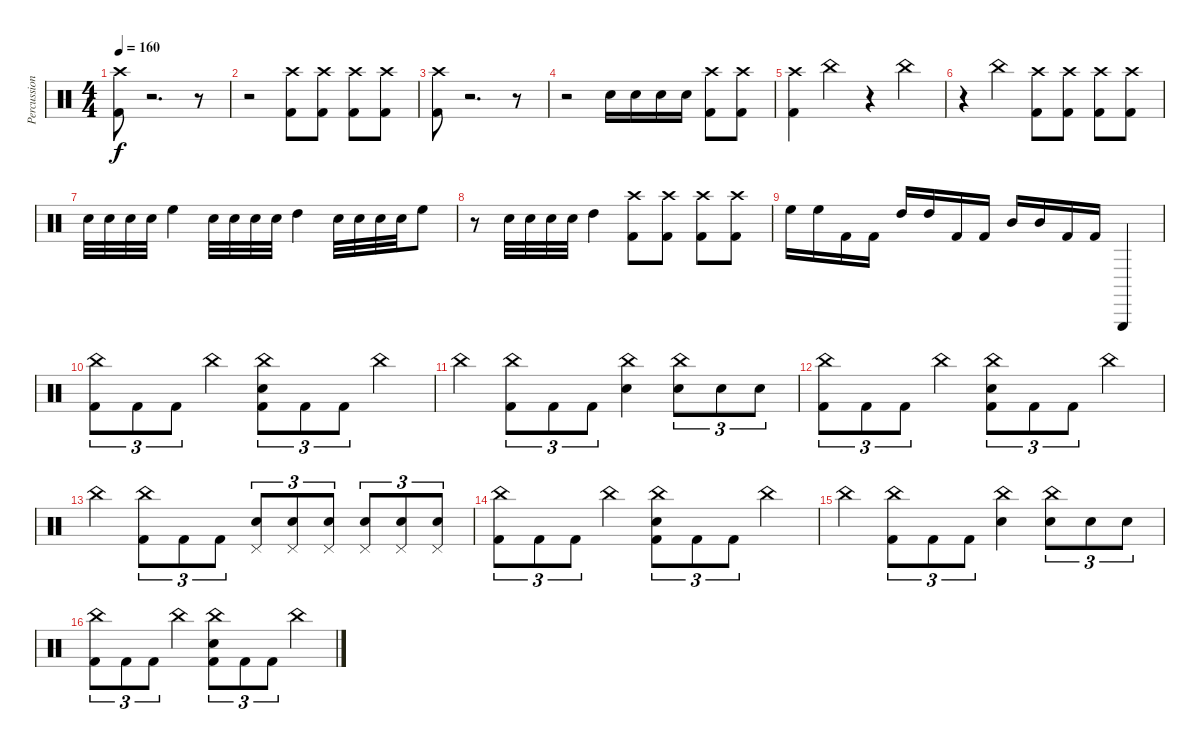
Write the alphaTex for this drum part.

\track ("Percussion" "Percussion") {instrument percussion}
\staff {score}
\articulation defaults
\ts (4 4)
\tempo 160
\clef neutral
\ks c
("Kick (hit) 2" "Crash high (hit)").8{dy f} r.2{d} r.8 |
r.2 ("Crash high (hit)" "Kick (hit) 2").8 ("Crash high (hit)" "Kick (hit) 2").8 ("Crash high (hit)" "Kick (hit) 2").8 ("Crash high (hit)" "Kick (hit) 2").8 |
("Kick (hit) 2" "Crash high (hit)").8 r.2{d} r.8 |
r.2 "Snare (hit) 2".16 "Snare (hit) 2".16 "Snare (hit) 2".16 "Snare (hit) 2".16 ("Crash high (hit)" "Kick (hit) 2").8 ("Crash high (hit)" "Kick (hit) 2").8 |
("Crash high (hit)" "Kick (hit) 2").4 "China (hit)".4 r.4 "China (hit)".4 |
r.4 "China (hit)".4 ("Crash high (hit)" "Kick (hit) 2").8 ("Crash high (hit)" "Kick (hit) 2").8 ("Crash high (hit)" "Kick (hit) 2").8 ("Crash high (hit)" "Kick (hit) 2").8 |
"Snare (hit) 2".32 "Snare (hit) 2".32 "Snare (hit) 2".32 "Snare (hit) 2".32 "High Floor Tom (hit)".4 "Snare (hit) 2".32 "Snare (hit) 2".32 "Snare (hit) 2".32 "Snare (hit) 2".32 "High Tom (hit)".4 "Snare (hit) 2".32 "Snare (hit) 2".32 "Snare (hit) 2".32 "Snare (hit) 2".32 "High Floor Tom (hit)".8 |
r.8 "Snare (hit) 2".32 "Snare (hit) 2".32 "Snare (hit) 2".32 "Snare (hit) 2".32 "High Tom (hit)".4 ("Crash high (hit)" "Kick (hit) 2").8 ("Crash high (hit)" "Kick (hit) 2").8 ("Crash high (hit)" "Kick (hit) 2").8 ("Crash high (hit)" "Kick (hit) 2").8 |
"High Floor Tom (hit)".16 "High Floor Tom (hit)".16 "Kick (hit) 2".16 "Kick (hit) 2".16 "High Tom (hit)".16 "High Tom (hit)".16 "Kick (hit) 2".16 "Kick (hit) 2".16 "Mid Tom (hit)".16 "Mid Tom (hit)".16 "Kick (hit) 2".16 "Kick (hit) 2".16 "Triangle (hit)".4 |
("China (hit)" "Kick (hit) 2").8{tu (3 2)} "Kick (hit) 2".8{tu (3 2)} "Kick (hit) 2".8{tu (3 2)} "China (hit)".4 ("China (hit)" "Snare (hit) 2" "Kick (hit) 2").8{tu (3 2)} "Kick (hit) 2".8{tu (3 2)} "Kick (hit) 2".8{tu (3 2)} "China (hit)".4 |
"China (hit)".4 ("China (hit)" "Kick (hit) 2").8{tu (3 2)} "Kick (hit) 2".8{tu (3 2)} "Kick (hit) 2".8{tu (3 2)} ("China (hit)" "Snare (hit) 2").4 ("China (hit)" "Snare (hit) 2").8{tu (3 2)} "Snare (hit) 2".8{tu (3 2)} "Snare (hit) 2".8{tu (3 2)} |
("China (hit)" "Kick (hit) 2").8{tu (3 2)} "Kick (hit) 2".8{tu (3 2)} "Kick (hit) 2".8{tu (3 2)} "China (hit)".4 ("China (hit)" "Snare (hit) 2" "Kick (hit) 2").8{tu (3 2)} "Kick (hit) 2".8{tu (3 2)} "Kick (hit) 2".8{tu (3 2)} "China (hit)".4 |
"China (hit)".4 ("China (hit)" "Kick (hit) 2").8{tu (3 2)} "Kick (hit) 2".8{tu (3 2)} "Kick (hit) 2".8{tu (3 2)} ("Pedal Hi-Hat (hit)" "Snare (hit) 2").8{tu (3 2)} ("Pedal Hi-Hat (hit)" "Snare (hit) 2").8{tu (3 2)} ("Pedal Hi-Hat (hit)" "Snare (hit) 2").8{tu (3 2)} ("Pedal Hi-Hat (hit)" "Snare (hit) 2").8{tu (3 2)} ("Pedal Hi-Hat (hit)" "Snare (hit) 2").8{tu (3 2)} ("Pedal Hi-Hat (hit)" "Snare (hit) 2").8{tu (3 2)} |
("China (hit)" "Kick (hit) 2").8{tu (3 2)} "Kick (hit) 2".8{tu (3 2)} "Kick (hit) 2".8{tu (3 2)} "China (hit)".4 ("China (hit)" "Snare (hit) 2" "Kick (hit) 2").8{tu (3 2)} "Kick (hit) 2".8{tu (3 2)} "Kick (hit) 2".8{tu (3 2)} "China (hit)".4 |
"China (hit)".4 ("China (hit)" "Kick (hit) 2").8{tu (3 2)} "Kick (hit) 2".8{tu (3 2)} "Kick (hit) 2".8{tu (3 2)} ("China (hit)" "Snare (hit) 2").4 ("China (hit)" "Snare (hit) 2").8{tu (3 2)} "Snare (hit) 2".8{tu (3 2)} "Snare (hit) 2".8{tu (3 2)} |
("China (hit)" "Kick (hit) 2").8{tu (3 2)} "Kick (hit) 2".8{tu (3 2)} "Kick (hit) 2".8{tu (3 2)} "China (hit)".4 ("China (hit)" "Snare (hit) 2" "Kick (hit) 2").8{tu (3 2)} "Kick (hit) 2".8{tu (3 2)} "Kick (hit) 2".8{tu (3 2)} "China (hit)".4
